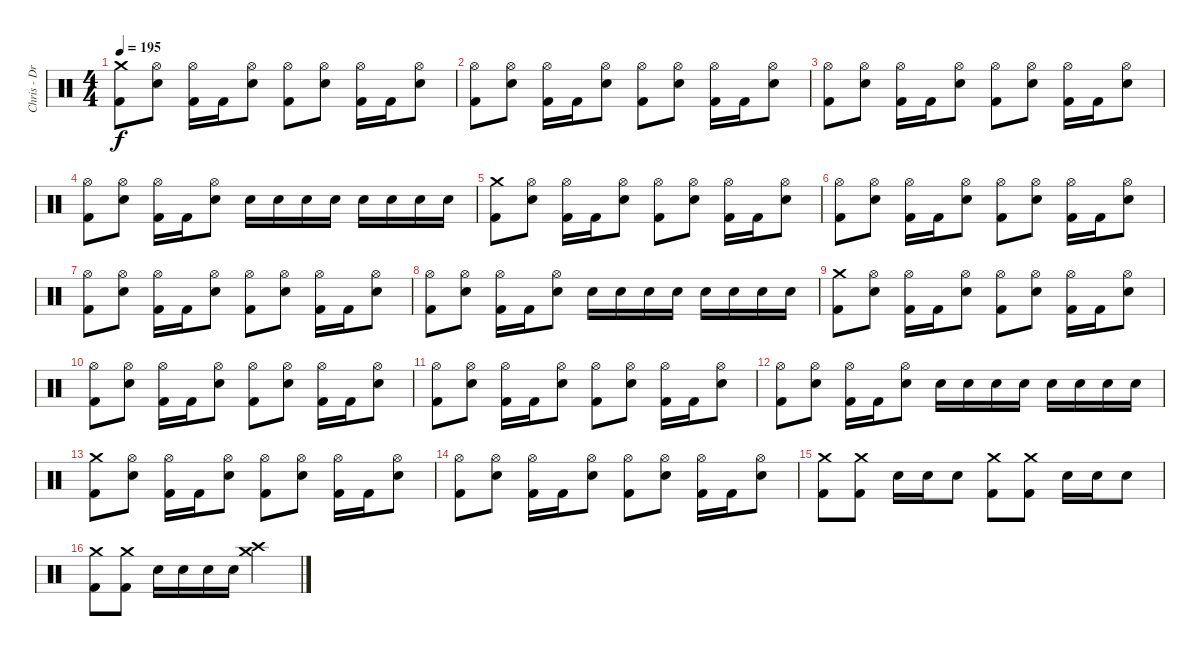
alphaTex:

\track ("Chris - Drums" "Chris - Dr") {instrument percussion}
\staff {score}
\articulation defaults
\ts (4 4)
\tempo 195
\clef neutral
\ks c
("Crash medium (hit)" "Kick (hit) 2").8{dy f} ("Hi-Hat (open)" "Electric Snare (hit)").8 ("Hi-Hat (open)" "Kick (hit) 2").16 "Kick (hit) 2".16 ("Hi-Hat (open)" "Electric Snare (hit)").8 ("Hi-Hat (open)" "Kick (hit) 2").8 ("Hi-Hat (open)" "Electric Snare (hit)").8 ("Hi-Hat (open)" "Kick (hit) 2").16 "Kick (hit) 2".16 ("Hi-Hat (open)" "Electric Snare (hit)").8 |
("Hi-Hat (open)" "Kick (hit) 2").8 ("Hi-Hat (open)" "Electric Snare (hit)").8 ("Hi-Hat (open)" "Kick (hit) 2").16 "Kick (hit) 2".16 ("Hi-Hat (open)" "Electric Snare (hit)").8 ("Hi-Hat (open)" "Kick (hit) 2").8 ("Hi-Hat (open)" "Electric Snare (hit)").8 ("Hi-Hat (open)" "Kick (hit) 2").16 "Kick (hit) 2".16 ("Hi-Hat (open)" "Electric Snare (hit)").8 |
("Hi-Hat (open)" "Kick (hit) 2").8 ("Hi-Hat (open)" "Electric Snare (hit)").8 ("Hi-Hat (open)" "Kick (hit) 2").16 "Kick (hit) 2".16 ("Hi-Hat (open)" "Electric Snare (hit)").8 ("Hi-Hat (open)" "Kick (hit) 2").8 ("Hi-Hat (open)" "Electric Snare (hit)").8 ("Hi-Hat (open)" "Kick (hit) 2").16 "Kick (hit) 2".16 ("Hi-Hat (open)" "Electric Snare (hit)").8 |
("Hi-Hat (open)" "Kick (hit) 2").8 ("Hi-Hat (open)" "Electric Snare (hit)").8 ("Hi-Hat (open)" "Kick (hit) 2").16 "Kick (hit) 2".16 ("Hi-Hat (open)" "Electric Snare (hit)").8 "Electric Snare (hit)".16 "Electric Snare (hit)".16 "Electric Snare (hit)".16 "Electric Snare (hit)".16 "Electric Snare (hit)".16 "Electric Snare (hit)".16 "Electric Snare (hit)".16 "Electric Snare (hit)".16 |
("Crash medium (hit)" "Kick (hit) 2").8 ("Hi-Hat (open)" "Electric Snare (hit)").8 ("Hi-Hat (open)" "Kick (hit) 2").16 "Kick (hit) 2".16 ("Hi-Hat (open)" "Electric Snare (hit)").8 ("Hi-Hat (open)" "Kick (hit) 2").8 ("Hi-Hat (open)" "Electric Snare (hit)").8 ("Hi-Hat (open)" "Kick (hit) 2").16 "Kick (hit) 2".16 ("Hi-Hat (open)" "Electric Snare (hit)").8 |
("Hi-Hat (open)" "Kick (hit) 2").8 ("Hi-Hat (open)" "Electric Snare (hit)").8 ("Hi-Hat (open)" "Kick (hit) 2").16 "Kick (hit) 2".16 ("Hi-Hat (open)" "Electric Snare (hit)").8 ("Hi-Hat (open)" "Kick (hit) 2").8 ("Hi-Hat (open)" "Electric Snare (hit)").8 ("Hi-Hat (open)" "Kick (hit) 2").16 "Kick (hit) 2".16 ("Hi-Hat (open)" "Electric Snare (hit)").8 |
("Hi-Hat (open)" "Kick (hit) 2").8 ("Hi-Hat (open)" "Electric Snare (hit)").8 ("Hi-Hat (open)" "Kick (hit) 2").16 "Kick (hit) 2".16 ("Hi-Hat (open)" "Electric Snare (hit)").8 ("Hi-Hat (open)" "Kick (hit) 2").8 ("Hi-Hat (open)" "Electric Snare (hit)").8 ("Hi-Hat (open)" "Kick (hit) 2").16 "Kick (hit) 2".16 ("Hi-Hat (open)" "Electric Snare (hit)").8 |
("Hi-Hat (open)" "Kick (hit) 2").8 ("Hi-Hat (open)" "Electric Snare (hit)").8 ("Hi-Hat (open)" "Kick (hit) 2").16 "Kick (hit) 2".16 ("Hi-Hat (open)" "Electric Snare (hit)").8 "Electric Snare (hit)".16 "Electric Snare (hit)".16 "Electric Snare (hit)".16 "Electric Snare (hit)".16 "Electric Snare (hit)".16 "Electric Snare (hit)".16 "Electric Snare (hit)".16 "Electric Snare (hit)".16 |
("Crash medium (hit)" "Kick (hit) 2").8 ("Hi-Hat (open)" "Electric Snare (hit)").8 ("Hi-Hat (open)" "Kick (hit) 2").16 "Kick (hit) 2".16 ("Hi-Hat (open)" "Electric Snare (hit)").8 ("Hi-Hat (open)" "Kick (hit) 2").8 ("Hi-Hat (open)" "Electric Snare (hit)").8 ("Hi-Hat (open)" "Kick (hit) 2").16 "Kick (hit) 2".16 ("Hi-Hat (open)" "Electric Snare (hit)").8 |
("Hi-Hat (open)" "Kick (hit) 2").8 ("Hi-Hat (open)" "Electric Snare (hit)").8 ("Hi-Hat (open)" "Kick (hit) 2").16 "Kick (hit) 2".16 ("Hi-Hat (open)" "Electric Snare (hit)").8 ("Hi-Hat (open)" "Kick (hit) 2").8 ("Hi-Hat (open)" "Electric Snare (hit)").8 ("Hi-Hat (open)" "Kick (hit) 2").16 "Kick (hit) 2".16 ("Hi-Hat (open)" "Electric Snare (hit)").8 |
("Hi-Hat (open)" "Kick (hit) 2").8 ("Hi-Hat (open)" "Electric Snare (hit)").8 ("Hi-Hat (open)" "Kick (hit) 2").16 "Kick (hit) 2".16 ("Hi-Hat (open)" "Electric Snare (hit)").8 ("Hi-Hat (open)" "Kick (hit) 2").8 ("Hi-Hat (open)" "Electric Snare (hit)").8 ("Hi-Hat (open)" "Kick (hit) 2").16 "Kick (hit) 2".16 ("Hi-Hat (open)" "Electric Snare (hit)").8 |
("Hi-Hat (open)" "Kick (hit) 2").8 ("Hi-Hat (open)" "Electric Snare (hit)").8 ("Hi-Hat (open)" "Kick (hit) 2").16 "Kick (hit) 2".16 ("Hi-Hat (open)" "Electric Snare (hit)").8 "Electric Snare (hit)".16 "Electric Snare (hit)".16 "Electric Snare (hit)".16 "Electric Snare (hit)".16 "Electric Snare (hit)".16 "Electric Snare (hit)".16 "Electric Snare (hit)".16 "Electric Snare (hit)".16 |
("Crash medium (hit)" "Kick (hit) 2").8 ("Hi-Hat (open)" "Electric Snare (hit)").8 ("Hi-Hat (open)" "Kick (hit) 2").16 "Kick (hit) 2".16 ("Hi-Hat (open)" "Electric Snare (hit)").8 ("Hi-Hat (open)" "Kick (hit) 2").8 ("Hi-Hat (open)" "Electric Snare (hit)").8 ("Hi-Hat (open)" "Kick (hit) 2").16 "Kick (hit) 2".16 ("Hi-Hat (open)" "Electric Snare (hit)").8 |
("Hi-Hat (open)" "Kick (hit) 2").8 ("Hi-Hat (open)" "Electric Snare (hit)").8 ("Hi-Hat (open)" "Kick (hit) 2").16 "Kick (hit) 2".16 ("Hi-Hat (open)" "Electric Snare (hit)").8 ("Hi-Hat (open)" "Kick (hit) 2").8 ("Hi-Hat (open)" "Electric Snare (hit)").8 ("Hi-Hat (open)" "Kick (hit) 2").16 "Kick (hit) 2".16 ("Hi-Hat (open)" "Electric Snare (hit)").8 |
("Crash medium (hit)" "Kick (hit) 2").8 ("Crash medium (hit)" "Kick (hit) 2").8 "Electric Snare (hit)".16 "Electric Snare (hit)".16 "Electric Snare (hit)".8 ("Crash medium (hit)" "Kick (hit) 2").8 ("Crash medium (hit)" "Kick (hit) 2").8 "Electric Snare (hit)".16 "Electric Snare (hit)".16 "Electric Snare (hit)".8 |
("Crash medium (hit)" "Kick (hit) 2").8 ("Crash medium (hit)" "Kick (hit) 2").8 "Electric Snare (hit)".16 "Electric Snare (hit)".16 "Electric Snare (hit)".16 "Electric Snare (hit)".16 ("Crash medium (hit)" "Crash high (hit)").2
